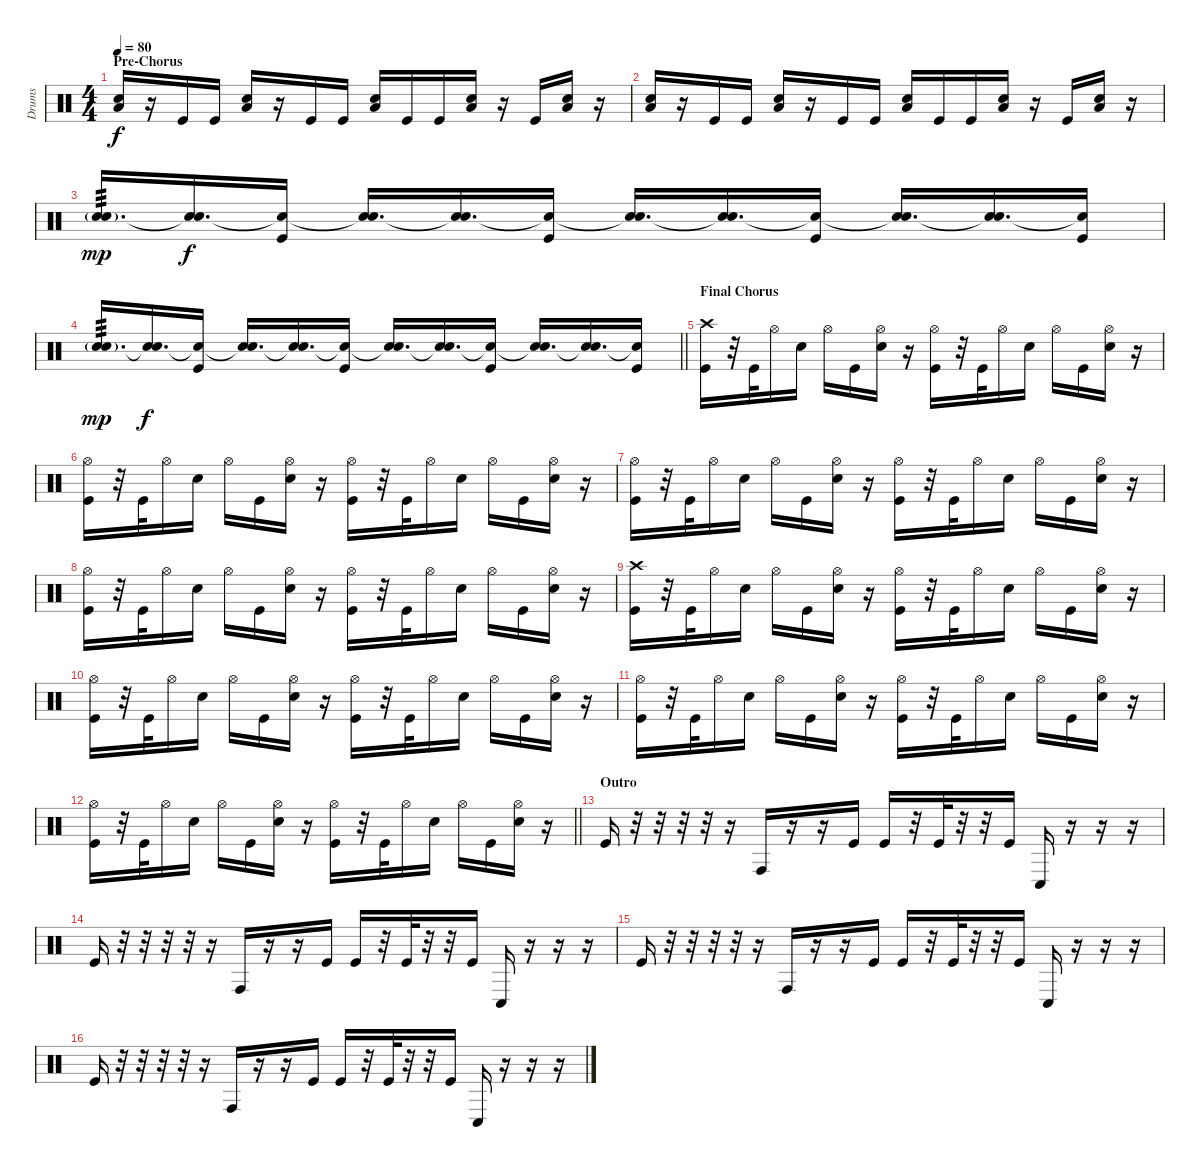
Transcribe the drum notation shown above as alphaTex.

\track ("Drums" "Drums") {instrument percussion}
\staff {score}
\articulation defaults
\ts (4 4)
\section ("" "Pre-Chorus")
\tempo 80
\clef neutral
\ks c
("Electric Snare (hit)" "Low Tom (hit)").16{dy f} r.16 "Kick (hit)".16 "Kick (hit)".16 ("Electric Snare (hit)" "Low Tom (hit)").16 r.16 "Kick (hit)".16 "Kick (hit)".16 ("Electric Snare (hit)" "Low Tom (hit)").16 "Kick (hit)".16 "Kick (hit)".16 ("Electric Snare (hit)" "Low Tom (hit)").16 r.16 "Kick (hit)".16 ("Electric Snare (hit)" "Low Tom (hit)").16 r.16 |
("Electric Snare (hit)" "Low Tom (hit)").16 r.16 "Kick (hit)".16 "Kick (hit)".16 ("Electric Snare (hit)" "Low Tom (hit)").16 r.16 "Kick (hit)".16 "Kick (hit)".16 ("Electric Snare (hit)" "Low Tom (hit)").16 "Kick (hit)".16 "Kick (hit)".16 ("Electric Snare (hit)" "Low Tom (hit)").16 r.16 "Kick (hit)".16 ("Electric Snare (hit)" "Low Tom (hit)").16 r.16 |
("Electric Snare (hit)"{g} "Electric Snare (hit)").16{d tp 3 dy mp} ("Electric Snare (hit)"{t} "Electric Snare (hit)").16{d dy f} ("Electric Snare (hit)"{t} "Kick (hit)").16 ("Electric Snare (hit)"{t} "Electric Snare (hit)").16{d} ("Electric Snare (hit)"{t} "Electric Snare (hit)").16{d} ("Electric Snare (hit)"{t} "Kick (hit)").16 ("Electric Snare (hit)"{t} "Electric Snare (hit)").16{d} ("Electric Snare (hit)"{t} "Electric Snare (hit)").16{d} ("Electric Snare (hit)"{t} "Kick (hit)").16 ("Electric Snare (hit)"{t} "Electric Snare (hit)").16{d} ("Snare (hit)"{t} "Electric Snare (hit)").16{d} ("Snare (hit)"{t} "Kick (hit)").16 |
\barLineRight lightlight
("Electric Snare (hit)"{g} "Electric Snare (hit)").16{d tp 3 dy mp} ("Electric Snare (hit)"{t} "Electric Snare (hit)").16{d dy f} ("Electric Snare (hit)"{t} "Kick (hit)").16 ("Electric Snare (hit)"{t} "Electric Snare (hit)").16{d} ("Electric Snare (hit)"{t} "Electric Snare (hit)").16{d} ("Electric Snare (hit)"{t} "Kick (hit)").16 ("Electric Snare (hit)"{t} "Electric Snare (hit)").16{d} ("Electric Snare (hit)"{t} "Electric Snare (hit)").16{d} ("Electric Snare (hit)"{t} "Kick (hit)").16 ("Electric Snare (hit)"{t} "Electric Snare (hit)").16{d} ("Snare (hit)"{t} "Electric Snare (hit)").16{d} ("Snare (hit)"{t} "Kick (hit)").16 |
\section ("" "Final Chorus")
("Crash high (hit)" "Kick (hit)").16 r.32 "Kick (hit)".32 "Hi-Hat (open)".16 "Electric Snare (hit)".16 "Hi-Hat (open)".16 "Kick (hit)".16 ("Hi-Hat (open)" "Electric Snare (hit)").16 r.16 ("Hi-Hat (open)" "Kick (hit)").16 r.32 "Kick (hit)".32 "Hi-Hat (open)".16 "Electric Snare (hit)".16 "Hi-Hat (open)".16 "Kick (hit)".16 ("Hi-Hat (open)" "Electric Snare (hit)").16 r.16 |
("Hi-Hat (open)" "Kick (hit)").16 r.32 "Kick (hit)".32 "Hi-Hat (open)".16 "Electric Snare (hit)".16 "Hi-Hat (open)".16 "Kick (hit)".16 ("Hi-Hat (open)" "Electric Snare (hit)").16 r.16 ("Hi-Hat (open)" "Kick (hit)").16 r.32 "Kick (hit)".32 "Hi-Hat (open)".16 "Electric Snare (hit)".16 "Hi-Hat (open)".16 "Kick (hit)".16 ("Hi-Hat (open)" "Electric Snare (hit)").16 r.16 |
("Hi-Hat (open)" "Kick (hit)").16 r.32 "Kick (hit)".32 "Hi-Hat (open)".16 "Electric Snare (hit)".16 "Hi-Hat (open)".16 "Kick (hit)".16 ("Hi-Hat (open)" "Electric Snare (hit)").16 r.16 ("Hi-Hat (open)" "Kick (hit)").16 r.32 "Kick (hit)".32 "Hi-Hat (open)".16 "Electric Snare (hit)".16 "Hi-Hat (open)".16 "Kick (hit)".16 ("Hi-Hat (open)" "Electric Snare (hit)").16 r.16 |
("Hi-Hat (open)" "Kick (hit)").16 r.32 "Kick (hit)".32 "Hi-Hat (open)".16 "Electric Snare (hit)".16 "Hi-Hat (open)".16 "Kick (hit)".16 ("Hi-Hat (open)" "Electric Snare (hit)").16 r.16 ("Hi-Hat (open)" "Kick (hit)").16 r.32 "Kick (hit)".32 "Hi-Hat (open)".16 "Electric Snare (hit)".16 "Hi-Hat (open)".16 "Kick (hit)".16 ("Hi-Hat (open)" "Electric Snare (hit)").16 r.16 |
("Crash high (hit)" "Kick (hit)").16 r.32 "Kick (hit)".32 "Hi-Hat (open)".16 "Electric Snare (hit)".16 "Hi-Hat (open)".16 "Kick (hit)".16 ("Hi-Hat (open)" "Electric Snare (hit)").16 r.16 ("Hi-Hat (open)" "Kick (hit)").16 r.32 "Kick (hit)".32 "Hi-Hat (open)".16 "Electric Snare (hit)".16 "Hi-Hat (open)".16 "Kick (hit)".16 ("Hi-Hat (open)" "Electric Snare (hit)").16 r.16 |
("Hi-Hat (open)" "Kick (hit)").16 r.32 "Kick (hit)".32 "Hi-Hat (open)".16 "Electric Snare (hit)".16 "Hi-Hat (open)".16 "Kick (hit)".16 ("Hi-Hat (open)" "Electric Snare (hit)").16 r.16 ("Hi-Hat (open)" "Kick (hit)").16 r.32 "Kick (hit)".32 "Hi-Hat (open)".16 "Electric Snare (hit)".16 "Hi-Hat (open)".16 "Kick (hit)".16 ("Hi-Hat (open)" "Electric Snare (hit)").16 r.16 |
("Hi-Hat (open)" "Kick (hit)").16 r.32 "Kick (hit)".32 "Hi-Hat (open)".16 "Electric Snare (hit)".16 "Hi-Hat (open)".16 "Kick (hit)".16 ("Hi-Hat (open)" "Electric Snare (hit)").16 r.16 ("Hi-Hat (open)" "Kick (hit)").16 r.32 "Kick (hit)".32 "Hi-Hat (open)".16 "Electric Snare (hit)".16 "Hi-Hat (open)".16 "Kick (hit)".16 ("Hi-Hat (open)" "Electric Snare (hit)").16 r.16 |
\barLineRight lightlight
("Hi-Hat (open)" "Kick (hit)").16 r.32 "Kick (hit)".32 "Hi-Hat (open)".16 "Electric Snare (hit)".16 "Hi-Hat (open)".16 "Kick (hit)".16 ("Hi-Hat (open)" "Electric Snare (hit)").16 r.16 ("Hi-Hat (open)" "Kick (hit)").16 r.32 "Kick (hit)".32 "Hi-Hat (open)".16 "Electric Snare (hit)".16 "Hi-Hat (open)".16 "Kick (hit)".16 ("Hi-Hat (open)" "Electric Snare (hit)").16 r.16 |
\section ("" "Outro")
"Kick (hit)".16 r.32 r.32 r.32 r.32 r.16 "Conga high (hit)".16 r.16 r.16 "Kick (hit)".16 "Kick (hit)".16 r.32 "Kick (hit)".32 r.32 r.32 "Kick (hit)".16 "Conga low (hit)".16 r.16 r.16 r.16 |
"Kick (hit)".16 r.32 r.32 r.32 r.32 r.16 "Conga high (hit)".16 r.16 r.16 "Kick (hit)".16 "Kick (hit)".16 r.32 "Kick (hit)".32 r.32 r.32 "Kick (hit)".16 "Conga low (hit)".16 r.16 r.16 r.16 |
"Kick (hit)".16 r.32 r.32 r.32 r.32 r.16 "Conga high (hit)".16 r.16 r.16 "Kick (hit)".16 "Kick (hit)".16 r.32 "Kick (hit)".32 r.32 r.32 "Kick (hit)".16 "Conga low (hit)".16 r.16 r.16 r.16 |
"Kick (hit)".16 r.32 r.32 r.32 r.32 r.16 "Conga high (hit)".16 r.16 r.16 "Kick (hit)".16 "Kick (hit)".16 r.32 "Kick (hit)".32 r.32 r.32 "Kick (hit)".16 "Conga low (hit)".16 r.16 r.16 r.16
